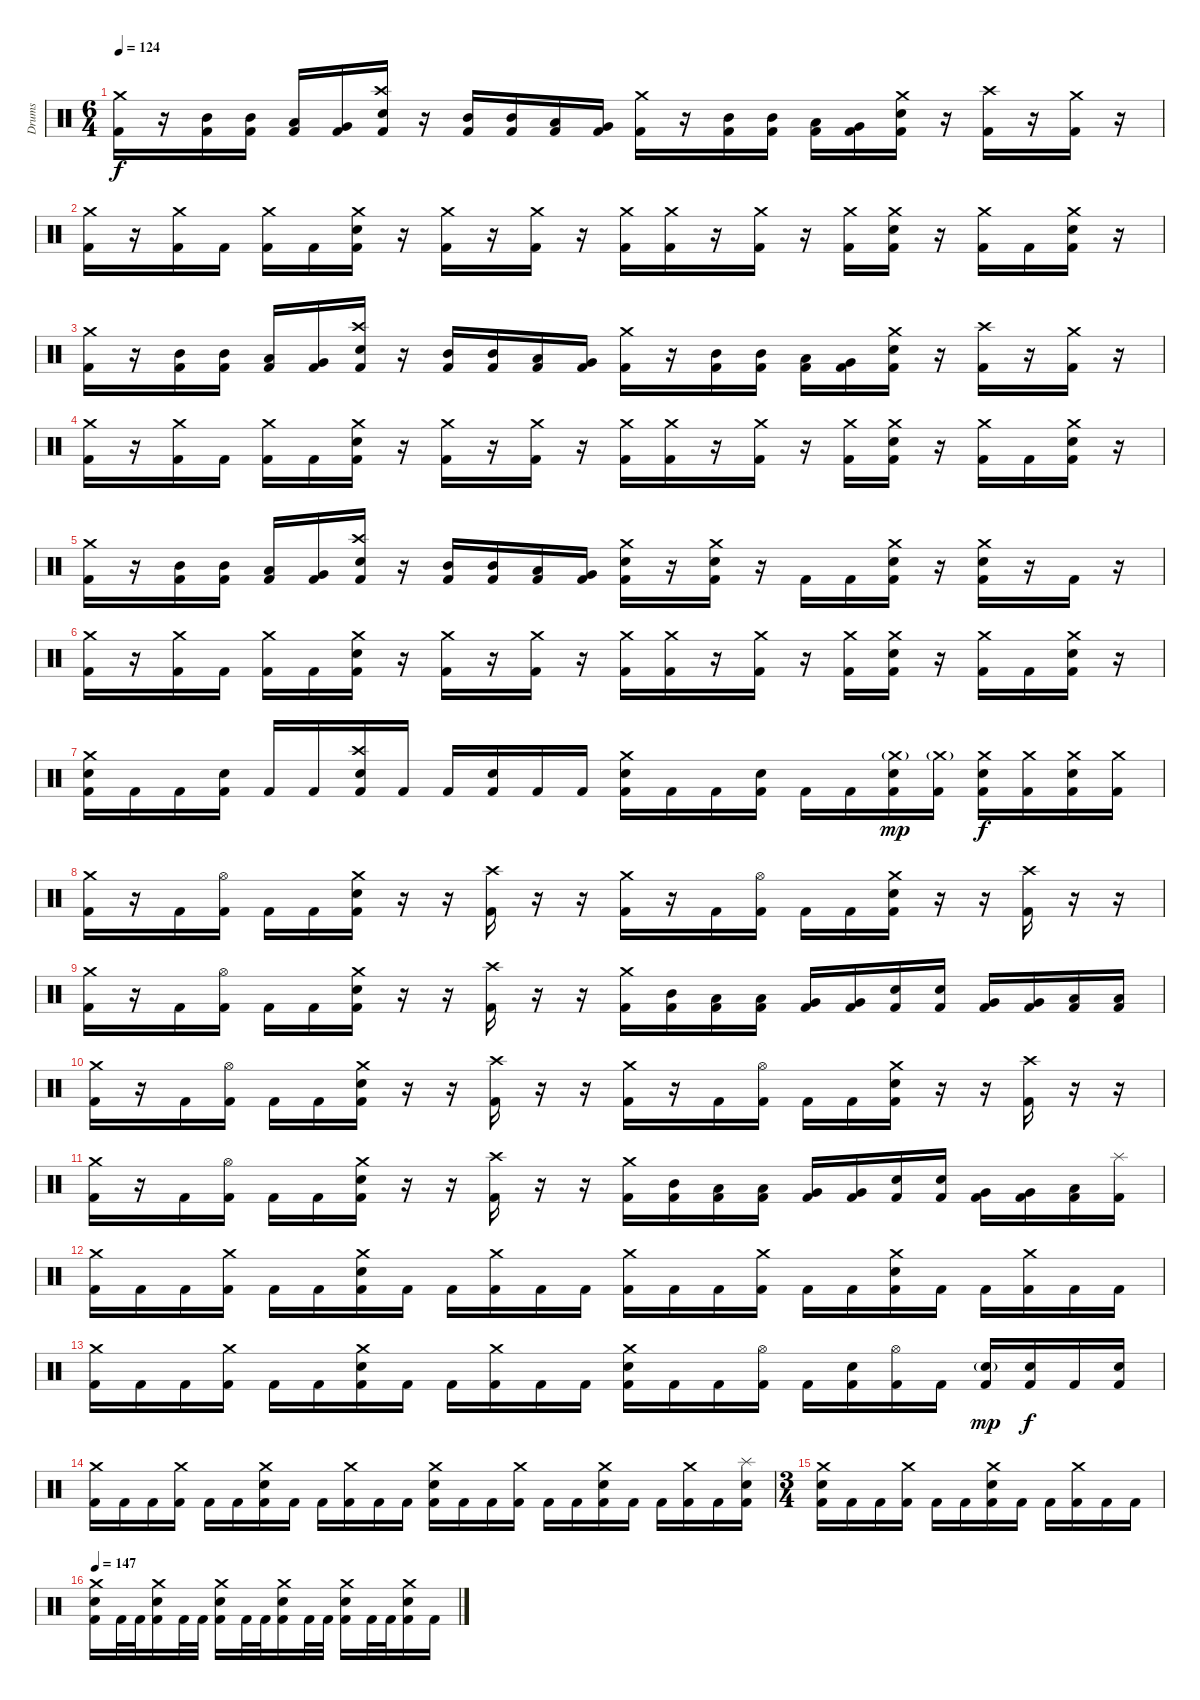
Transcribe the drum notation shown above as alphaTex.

\track ("Drums" "Drums") {instrument percussion}
\staff {score}
\articulation defaults
\ts (6 4)
\section ("" "")
\tempo 124
\clef neutral
\ks c
("Crash medium (hit)" "Kick (hit) 2").16{dy f volume 16} r.16 ("Mid Tom (hit)" "Kick (hit) 2").16 ("Mid Tom (hit)" "Kick (hit) 2").16 ("Low Tom (hit)" "Kick (hit) 2").16 ("Very Low Tom (hit)" "Kick (hit) 2").16 ("Crash high (hit)" "Electric Snare (hit)" "Kick (hit) 2").16 r.16 ("Mid Tom (hit)" "Kick (hit) 2").16 ("Mid Tom (hit)" "Kick (hit) 2").16 ("Low Tom (hit)" "Kick (hit) 2").16 ("Very Low Tom (hit)" "Kick (hit) 2").16 ("Crash medium (hit)" "Kick (hit) 2").16 r.16 ("Mid Tom (hit)" "Kick (hit) 2").16 ("Mid Tom (hit)" "Kick (hit) 2").16 ("Low Tom (hit)" "Kick (hit) 2").16 ("Very Low Tom (hit)" "Kick (hit) 2").16 ("Crash medium (hit)" "Electric Snare (hit)" "Kick (hit) 2").16 r.16 ("Crash high (hit)" "Kick (hit) 2").16 r.16 ("Crash medium (hit)" "Kick (hit) 2").16 r.16 |
("Crash medium (hit)" "Kick (hit) 2").16 r.16 ("Crash medium (hit)" "Kick (hit) 2").16 "Kick (hit) 2".16 ("Crash medium (hit)" "Kick (hit) 2").16 "Kick (hit) 2".16 ("Crash medium (hit)" "Electric Snare (hit)" "Kick (hit) 2").16 r.16 ("Crash medium (hit)" "Kick (hit) 2").16 r.16 ("Crash medium (hit)" "Kick (hit) 2").16 r.16 ("Crash medium (hit)" "Kick (hit) 2").16 ("Crash medium (hit)" "Kick (hit) 2").16 r.16 ("Crash medium (hit)" "Kick (hit) 2").16 r.16 ("Crash medium (hit)" "Kick (hit) 2").16 ("Crash medium (hit)" "Electric Snare (hit)" "Kick (hit) 2").16 r.16 ("Crash medium (hit)" "Kick (hit) 2").16 "Kick (hit) 2".16 ("Crash medium (hit)" "Electric Snare (hit)" "Kick (hit) 2").16 r.16 |
("Crash medium (hit)" "Kick (hit) 2").16 r.16 ("Mid Tom (hit)" "Kick (hit) 2").16 ("Mid Tom (hit)" "Kick (hit) 2").16 ("Low Tom (hit)" "Kick (hit) 2").16 ("Very Low Tom (hit)" "Kick (hit) 2").16 ("Crash high (hit)" "Electric Snare (hit)" "Kick (hit) 2").16 r.16 ("Mid Tom (hit)" "Kick (hit) 2").16 ("Mid Tom (hit)" "Kick (hit) 2").16 ("Low Tom (hit)" "Kick (hit) 2").16 ("Very Low Tom (hit)" "Kick (hit) 2").16 ("Crash medium (hit)" "Kick (hit) 2").16 r.16 ("Mid Tom (hit)" "Kick (hit) 2").16 ("Mid Tom (hit)" "Kick (hit) 2").16 ("Low Tom (hit)" "Kick (hit) 2").16 ("Very Low Tom (hit)" "Kick (hit) 2").16 ("Crash medium (hit)" "Electric Snare (hit)" "Kick (hit) 2").16 r.16 ("Crash high (hit)" "Kick (hit) 2").16 r.16 ("Crash medium (hit)" "Kick (hit) 2").16 r.16 |
("Crash medium (hit)" "Kick (hit) 2").16 r.16 ("Crash medium (hit)" "Kick (hit) 2").16 "Kick (hit) 2".16 ("Crash medium (hit)" "Kick (hit) 2").16 "Kick (hit) 2".16 ("Crash medium (hit)" "Electric Snare (hit)" "Kick (hit) 2").16 r.16 ("Crash medium (hit)" "Kick (hit) 2").16 r.16 ("Crash medium (hit)" "Kick (hit) 2").16 r.16 ("Crash medium (hit)" "Kick (hit) 2").16 ("Crash medium (hit)" "Kick (hit) 2").16 r.16 ("Crash medium (hit)" "Kick (hit) 2").16 r.16 ("Crash medium (hit)" "Kick (hit) 2").16 ("Crash medium (hit)" "Electric Snare (hit)" "Kick (hit) 2").16 r.16 ("Crash medium (hit)" "Kick (hit) 2").16 "Kick (hit) 2".16 ("Crash medium (hit)" "Electric Snare (hit)" "Kick (hit) 2").16 r.16 |
("Crash medium (hit)" "Kick (hit) 2").16 r.16 ("Mid Tom (hit)" "Kick (hit) 2").16 ("Mid Tom (hit)" "Kick (hit) 2").16 ("Low Tom (hit)" "Kick (hit) 2").16 ("Very Low Tom (hit)" "Kick (hit) 2").16 ("Crash high (hit)" "Electric Snare (hit)" "Kick (hit) 2").16 r.16 ("Mid Tom (hit)" "Kick (hit) 2").16 ("Mid Tom (hit)" "Kick (hit) 2").16 ("Low Tom (hit)" "Kick (hit) 2").16 ("Very Low Tom (hit)" "Kick (hit) 2").16 ("Crash medium (hit)" "Electric Snare (hit)" "Kick (hit) 2").16 r.16 ("Crash medium (hit)" "Electric Snare (hit)" "Kick (hit) 2").16 r.16 "Kick (hit) 2".16 "Kick (hit) 2".16 ("Crash medium (hit)" "Electric Snare (hit)" "Kick (hit) 2").16 r.16 ("Crash medium (hit)" "Electric Snare (hit)" "Kick (hit) 2").16 r.16 "Kick (hit) 2".16 r.16 |
("Crash medium (hit)" "Kick (hit) 2").16 r.16 ("Crash medium (hit)" "Kick (hit) 2").16 "Kick (hit) 2".16 ("Crash medium (hit)" "Kick (hit) 2").16 "Kick (hit) 2".16 ("Crash medium (hit)" "Electric Snare (hit)" "Kick (hit) 2").16 r.16 ("Crash medium (hit)" "Kick (hit) 2").16 r.16 ("Crash medium (hit)" "Kick (hit) 2").16 r.16 ("Crash medium (hit)" "Kick (hit) 2").16 ("Crash medium (hit)" "Kick (hit) 2").16 r.16 ("Crash medium (hit)" "Kick (hit) 2").16 r.16 ("Crash medium (hit)" "Kick (hit) 2").16 ("Crash medium (hit)" "Electric Snare (hit)" "Kick (hit) 2").16 r.16 ("Crash medium (hit)" "Kick (hit) 2").16 "Kick (hit) 2".16 ("Crash medium (hit)" "Electric Snare (hit)" "Kick (hit) 2").16 r.16 |
("Crash medium (hit)" "Electric Snare (hit)" "Kick (hit) 2").16 "Kick (hit) 2".16 "Kick (hit) 2".16 ("Electric Snare (hit)" "Kick (hit) 2").16 "Kick (hit) 2".16 "Kick (hit) 2".16 ("Crash high (hit)" "Electric Snare (hit)" "Kick (hit) 2").16 "Kick (hit) 2".16 "Kick (hit) 2".16 ("Electric Snare (hit)" "Kick (hit) 2").16 "Kick (hit) 2".16 "Kick (hit) 2".16 ("Crash medium (hit)" "Electric Snare (hit)" "Kick (hit) 2").16 "Kick (hit) 2".16 "Kick (hit) 2".16 ("Electric Snare (hit)" "Kick (hit) 2").16 "Kick (hit) 2".16 "Kick (hit) 2".16 ("Crash medium (hit)"{g} "Electric Snare (hit)" "Kick (hit) 2").16{dy mp} ("Crash medium (hit)"{g} "Kick (hit) 2").16 ("Crash medium (hit)" "Electric Snare (hit)" "Kick (hit) 2").16{dy f} ("Crash medium (hit)" "Kick (hit) 2").16 ("Crash medium (hit)" "Electric Snare (hit)" "Kick (hit) 2").16 ("Crash medium (hit)" "Kick (hit) 2").16 |
\section ("" "")
("Crash medium (hit)" "Kick (hit) 2").16 r.16 "Kick (hit) 2".16 ("Hi-Hat (open)" "Kick (hit) 2").16 "Kick (hit) 2".16 "Kick (hit) 2".16 ("Crash medium (hit)" "Electric Snare (hit)" "Kick (hit) 2").16 r.16 r.16 ("Crash high (hit)" "Kick (hit) 2").16 r.16 r.16 ("Crash medium (hit)" "Kick (hit) 2").16 r.16 "Kick (hit) 2".16 ("Hi-Hat (open)" "Kick (hit) 2").16 "Kick (hit) 2".16 "Kick (hit) 2".16 ("Crash medium (hit)" "Electric Snare (hit)" "Kick (hit) 2").16 r.16 r.16 ("Crash high (hit)" "Kick (hit) 2").16 r.16 r.16 |
("Crash medium (hit)" "Kick (hit) 2").16 r.16 "Kick (hit) 2".16 ("Hi-Hat (open)" "Kick (hit) 2").16 "Kick (hit) 2".16 "Kick (hit) 2".16 ("Crash medium (hit)" "Electric Snare (hit)" "Kick (hit) 2").16 r.16 r.16 ("Crash high (hit)" "Kick (hit) 2").16 r.16 r.16 ("Crash medium (hit)" "Kick (hit) 2").16 ("Mid Tom (hit)" "Kick (hit) 2").16 ("Low Tom (hit)" "Kick (hit) 2").16 ("Low Tom (hit)" "Kick (hit) 2").16 ("Very Low Tom (hit)" "Kick (hit) 2").16 ("Very Low Tom (hit)" "Kick (hit) 2").16 ("Electric Snare (hit)" "Kick (hit) 2").16 ("Electric Snare (hit)" "Kick (hit) 2").16 ("Very Low Tom (hit)" "Kick (hit) 2").16 ("Very Low Tom (hit)" "Kick (hit) 2").16 ("Low Floor Tom (hit)" "Kick (hit) 2").16 ("Low Floor Tom (hit)" "Kick (hit) 2").16 |
("Crash medium (hit)" "Kick (hit) 2").16 r.16 "Kick (hit) 2".16 ("Hi-Hat (open)" "Kick (hit) 2").16 "Kick (hit) 2".16 "Kick (hit) 2".16 ("Crash medium (hit)" "Electric Snare (hit)" "Kick (hit) 2").16 r.16 r.16 ("Crash high (hit)" "Kick (hit) 2").16 r.16 r.16 ("Crash medium (hit)" "Kick (hit) 2").16 r.16 "Kick (hit) 2".16 ("Hi-Hat (open)" "Kick (hit) 2").16 "Kick (hit) 2".16 "Kick (hit) 2".16 ("Crash medium (hit)" "Electric Snare (hit)" "Kick (hit) 2").16 r.16 r.16 ("Crash high (hit)" "Kick (hit) 2").16 r.16 r.16 |
("Crash medium (hit)" "Kick (hit) 2").16 r.16 "Kick (hit) 2".16 ("Hi-Hat (open)" "Kick (hit) 2").16 "Kick (hit) 2".16 "Kick (hit) 2".16 ("Crash medium (hit)" "Electric Snare (hit)" "Kick (hit) 2").16 r.16 r.16 ("Crash high (hit)" "Kick (hit) 2").16 r.16 r.16 ("Crash medium (hit)" "Kick (hit) 2").16 ("Mid Tom (hit)" "Kick (hit) 2").16 ("Low Tom (hit)" "Kick (hit) 2").16 ("Low Tom (hit)" "Kick (hit) 2").16 ("Very Low Tom (hit)" "Kick (hit) 2").16 ("Very Low Tom (hit)" "Kick (hit) 2").16 ("Electric Snare (hit)" "Kick (hit) 2").16 ("Electric Snare (hit)" "Kick (hit) 2").16 ("Very Low Tom (hit)" "Kick (hit) 2").16 ("Very Low Tom (hit)" "Kick (hit) 2").16 ("Low Floor Tom (hit)" "Kick (hit) 2").16 ("Splash (hit)" "Kick (hit) 2").16 |
("Crash medium (hit)" "Kick (hit) 2").16 "Kick (hit) 2".16 "Kick (hit) 2".16 ("Crash medium (hit)" "Kick (hit) 2").16 "Kick (hit) 2".16 "Kick (hit) 2".16 ("Crash medium (hit)" "Electric Snare (hit)" "Kick (hit) 2").16 "Kick (hit) 2".16 "Kick (hit) 2".16 ("Crash medium (hit)" "Kick (hit) 2").16 "Kick (hit) 2".16 "Kick (hit) 2".16 ("Crash medium (hit)" "Kick (hit) 2").16 "Kick (hit) 2".16 "Kick (hit) 2".16 ("Crash medium (hit)" "Kick (hit) 2").16 "Kick (hit) 2".16 "Kick (hit) 2".16 ("Crash medium (hit)" "Electric Snare (hit)" "Kick (hit) 2").16 "Kick (hit) 2".16 "Kick (hit) 2".16 ("Crash medium (hit)" "Kick (hit) 2").16 "Kick (hit) 2".16 "Kick (hit) 2".16 |
("Crash medium (hit)" "Kick (hit) 2").16 "Kick (hit) 2".16 "Kick (hit) 2".16 ("Crash medium (hit)" "Kick (hit) 2").16 "Kick (hit) 2".16 "Kick (hit) 2".16 ("Crash medium (hit)" "Electric Snare (hit)" "Kick (hit) 2").16 "Kick (hit) 2".16 "Kick (hit) 2".16 ("Crash medium (hit)" "Kick (hit) 2").16 "Kick (hit) 2".16 "Kick (hit) 2".16 ("Crash medium (hit)" "Electric Snare (hit)" "Kick (hit) 2").16 "Kick (hit) 2".16 "Kick (hit) 2".16 ("Hi-Hat (open)" "Kick (hit) 2").16 "Kick (hit) 2".16 ("Electric Snare (hit)" "Kick (hit) 2").16 ("Hi-Hat (open)" "Kick (hit) 2").16 "Kick (hit) 2".16 ("Electric Snare (hit)"{g} "Kick (hit) 2").16{dy mp} ("Electric Snare (hit)" "Kick (hit) 2").16{dy f} "Kick (hit) 2".16 ("Electric Snare (hit)" "Kick (hit) 2").16 |
("Crash medium (hit)" "Kick (hit) 2").16 "Kick (hit) 2".16 "Kick (hit) 2".16 ("Crash medium (hit)" "Kick (hit) 2").16 "Kick (hit) 2".16 "Kick (hit) 2".16 ("Crash medium (hit)" "Electric Snare (hit)" "Kick (hit) 2").16 "Kick (hit) 2".16 "Kick (hit) 2".16 ("Crash medium (hit)" "Kick (hit) 2").16 "Kick (hit) 2".16 "Kick (hit) 2".16 ("Crash medium (hit)" "Electric Snare (hit)" "Kick (hit) 2").16 "Kick (hit) 2".16 "Kick (hit) 2".16 ("Crash medium (hit)" "Kick (hit) 2").16 "Kick (hit) 2".16 "Kick (hit) 2".16 ("Crash medium (hit)" "Electric Snare (hit)" "Kick (hit) 2").16 "Kick (hit) 2".16 "Kick (hit) 2".16 ("Crash medium (hit)" "Kick (hit) 2").16 "Kick (hit) 2".16 ("Splash (hit)" "Electric Snare (hit)" "Kick (hit) 2").16 |
\ts (3 4)
("Crash medium (hit)" "Electric Snare (hit)" "Kick (hit) 2").16 "Kick (hit) 2".16 "Kick (hit) 2".16 ("Crash medium (hit)" "Kick (hit) 2").16 "Kick (hit) 2".16 "Kick (hit) 2".16 ("Crash medium (hit)" "Electric Snare (hit)" "Kick (hit) 2").16 "Kick (hit) 2".16 "Kick (hit) 2".16 ("Crash medium (hit)" "Kick (hit) 2").16 "Kick (hit) 2".16 "Kick (hit) 2".16 |
\section ("" "")
\tempo 147
("Crash medium (hit)" "Electric Snare (hit)" "Kick (hit) 2").16 "Kick (hit) 2".32 "Kick (hit) 2".32 ("Crash medium (hit)" "Electric Snare (hit)" "Kick (hit) 2").16 "Kick (hit) 2".32 "Kick (hit) 2".32 ("Crash medium (hit)" "Electric Snare (hit)" "Kick (hit) 2").16 "Kick (hit) 2".32 "Kick (hit) 2".32 ("Crash medium (hit)" "Electric Snare (hit)" "Kick (hit) 2").16 "Kick (hit) 2".32 "Kick (hit) 2".32 ("Crash medium (hit)" "Electric Snare (hit)" "Kick (hit) 2").16 "Kick (hit) 2".32 "Kick (hit) 2".32 ("Crash medium (hit)" "Electric Snare (hit)" "Kick (hit) 2").16 "Kick (hit) 2".16
